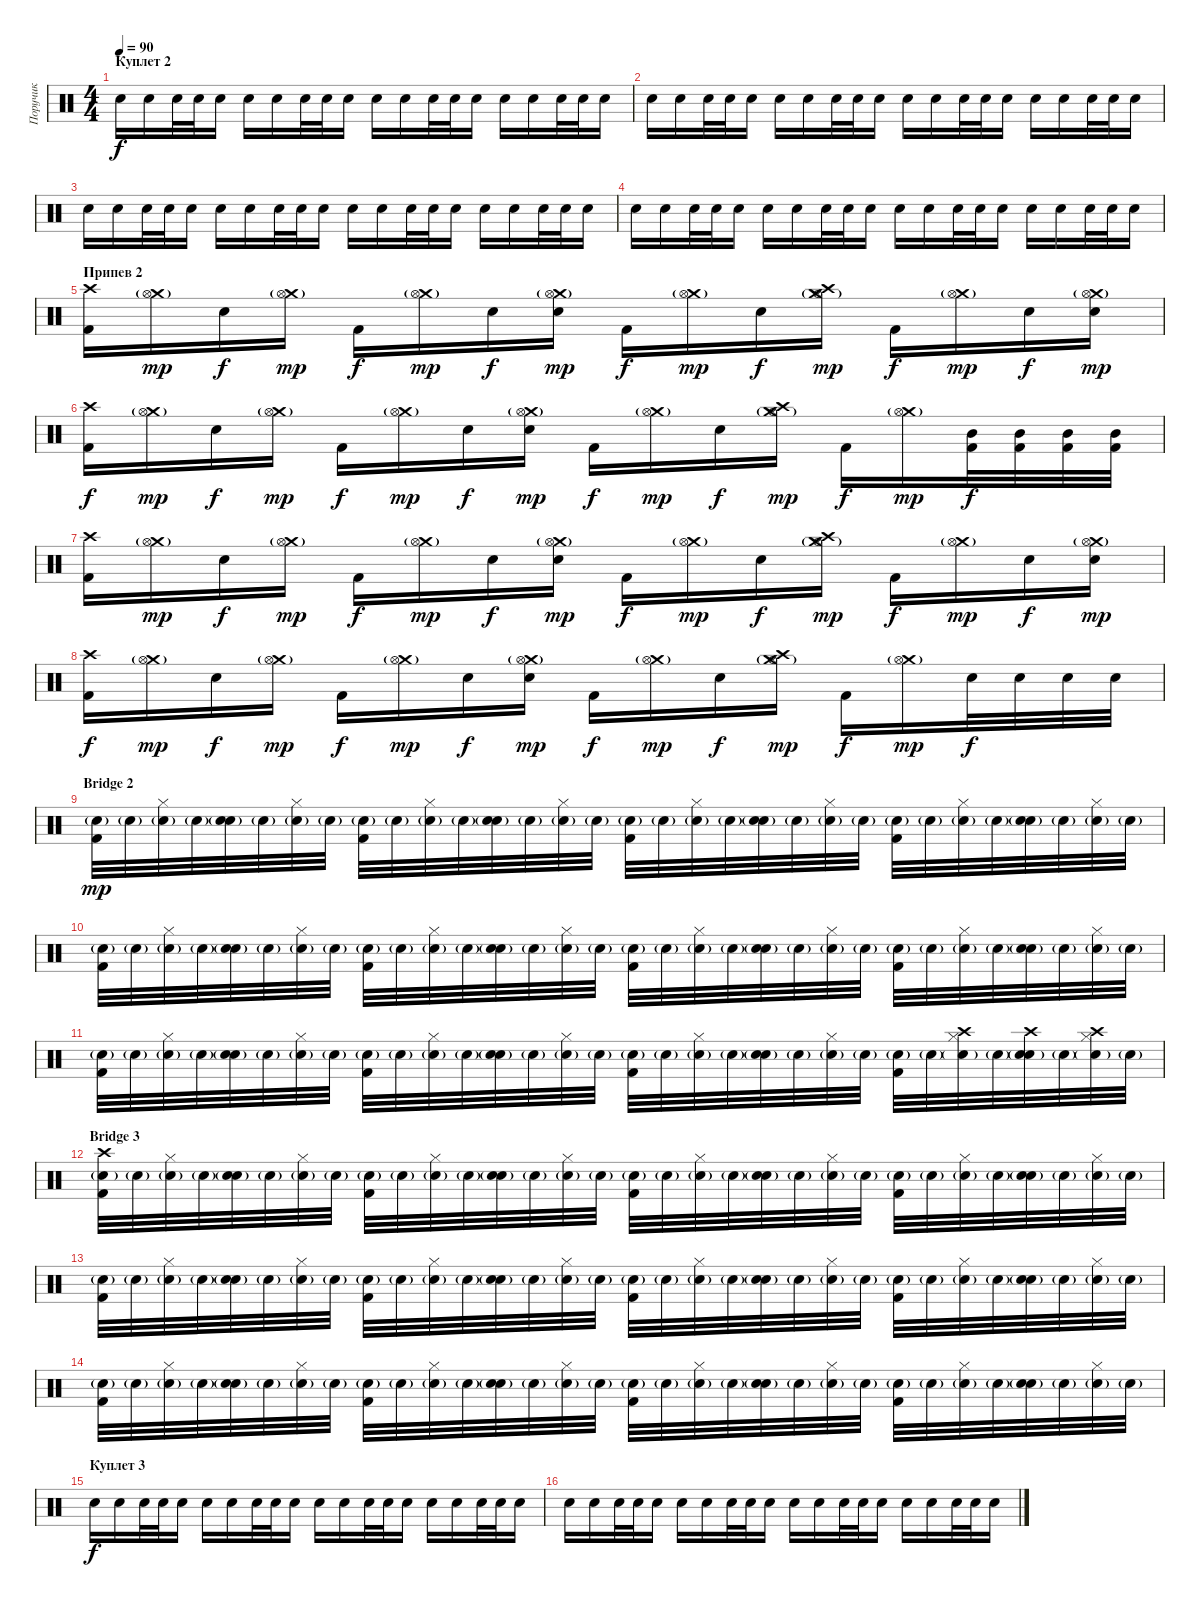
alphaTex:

\track ("Поручик" "Поручик") {instrument percussion}
\staff {score}
\articulation defaults
\ts (4 4)
\section ("" "Куплет 2")
\tempo 90
\clef neutral
\ks c "Snare (hit) 2".16{dy f} "Snare (hit) 2".16 "Snare (hit) 2".32 "Snare (hit) 2".32 "Snare (hit) 2".16 "Snare (hit) 2".16 "Snare (hit) 2".16 "Snare (hit) 2".32 "Snare (hit) 2".32 "Snare (hit) 2".16 "Snare (hit) 2".16 "Snare (hit) 2".16 "Snare (hit) 2".32 "Snare (hit) 2".32 "Snare (hit) 2".16 "Snare (hit) 2".16 "Snare (hit) 2".16 "Snare (hit) 2".32 "Snare (hit) 2".32 "Snare (hit) 2".16
|
"Snare (hit) 2".16 "Snare (hit) 2".16 "Snare (hit) 2".32 "Snare (hit) 2".32 "Snare (hit) 2".16 "Snare (hit) 2".16 "Snare (hit) 2".16 "Snare (hit) 2".32 "Snare (hit) 2".32 "Snare (hit) 2".16 "Snare (hit) 2".16 "Snare (hit) 2".16 "Snare (hit) 2".32 "Snare (hit) 2".32 "Snare (hit) 2".16 "Snare (hit) 2".16 "Snare (hit) 2".16 "Snare (hit) 2".32 "Snare (hit) 2".32 "Snare (hit) 2".16 |
"Snare (hit) 2".16 "Snare (hit) 2".16 "Snare (hit) 2".32 "Snare (hit) 2".32 "Snare (hit) 2".16 "Snare (hit) 2".16 "Snare (hit) 2".16 "Snare (hit) 2".32 "Snare (hit) 2".32 "Snare (hit) 2".16 "Snare (hit) 2".16 "Snare (hit) 2".16 "Snare (hit) 2".32 "Snare (hit) 2".32 "Snare (hit) 2".16 "Snare (hit) 2".16 "Snare (hit) 2".16 "Snare (hit) 2".32 "Snare (hit) 2".32 "Snare (hit) 2".16 |
"Snare (hit) 2".16 "Snare (hit) 2".16 "Snare (hit) 2".32 "Snare (hit) 2".32 "Snare (hit) 2".16 "Snare (hit) 2".16 "Snare (hit) 2".16 "Snare (hit) 2".32 "Snare (hit) 2".32 "Snare (hit) 2".16 "Snare (hit) 2".16 "Snare (hit) 2".16 "Snare (hit) 2".32 "Snare (hit) 2".32 "Snare (hit) 2".16 "Snare (hit) 2".16 "Snare (hit) 2".16 "Snare (hit) 2".32 "Snare (hit) 2".32 "Snare (hit) 2".16 |
\section ("" "Припев 2")
("Crash high (hit)" "Kick (hit) 2").16 ("Crash medium (hit)"{g} "Hi-Hat (open)"{g}).16{dy mp} "Snare (hit) 2".16{dy f} ("Crash medium (hit)"{g} "Hi-Hat (open)"{g}).16{dy mp} "Kick (hit) 2".16{dy f} ("Crash medium (hit)"{g} "Hi-Hat (open)"{g}).16{dy mp} "Snare (hit) 2".16{dy f} ("Snare (hit) 2" "Crash medium (hit)"{g} "Hi-Hat (open)"{g}).16{dy mp} "Kick (hit) 2".16{dy f} ("Crash medium (hit)"{g} "Hi-Hat (open)"{g}).16{dy mp} "Snare (hit) 2".16{dy f} ("Crash high (hit)" "Crash medium (hit)"{g} "Hi-Hat (open)"{g}).16{dy mp} "Kick (hit) 2".16{dy f} ("Crash medium (hit)"{g} "Hi-Hat (open)"{g}).16{dy mp} "Snare (hit) 2".16{dy f} ("Snare (hit) 2" "Crash medium (hit)"{g} "Hi-Hat (open)"{g}).16{dy mp} |
("Crash high (hit)" "Kick (hit) 2").16{dy f} ("Crash medium (hit)"{g} "Hi-Hat (open)"{g}).16{dy mp} "Snare (hit) 2".16{dy f} ("Crash medium (hit)"{g} "Hi-Hat (open)"{g}).16{dy mp} "Kick (hit) 2".16{dy f} ("Crash medium (hit)"{g} "Hi-Hat (open)"{g}).16{dy mp} "Snare (hit) 2".16{dy f} ("Snare (hit) 2" "Crash medium (hit)"{g} "Hi-Hat (open)"{g}).16{dy mp} "Kick (hit) 2".16{dy f} ("Crash medium (hit)"{g} "Hi-Hat (open)"{g}).16{dy mp} "Snare (hit) 2".16{dy f} ("Crash high (hit)" "Crash medium (hit)"{g} "Hi-Hat (open)"{g}).16{dy mp} "Kick (hit) 2".16{dy f} ("Crash medium (hit)"{g} "Hi-Hat (open)"{g}).16{dy mp} ("Kick (hit) 2" "Mid Tom (hit)").32{dy f} ("Kick (hit) 2" "Mid Tom (hit)").32 ("Kick (hit) 2" "Mid Tom (hit)").32 ("Kick (hit) 2" "Mid Tom (hit)").32 |
("Crash high (hit)" "Kick (hit) 2").16 ("Crash medium (hit)"{g} "Hi-Hat (open)"{g}).16{dy mp} "Snare (hit) 2".16{dy f} ("Crash medium (hit)"{g} "Hi-Hat (open)"{g}).16{dy mp} "Kick (hit) 2".16{dy f} ("Crash medium (hit)"{g} "Hi-Hat (open)"{g}).16{dy mp} "Snare (hit) 2".16{dy f} ("Snare (hit) 2" "Crash medium (hit)"{g} "Hi-Hat (open)"{g}).16{dy mp} "Kick (hit) 2".16{dy f} ("Crash medium (hit)"{g} "Hi-Hat (open)"{g}).16{dy mp} "Snare (hit) 2".16{dy f} ("Crash high (hit)" "Crash medium (hit)"{g} "Hi-Hat (open)"{g}).16{dy mp} "Kick (hit) 2".16{dy f} ("Crash medium (hit)"{g} "Hi-Hat (open)"{g}).16{dy mp} "Snare (hit) 2".16{dy f} ("Snare (hit) 2" "Crash medium (hit)"{g} "Hi-Hat (open)"{g}).16{dy mp} |
("Crash high (hit)" "Kick (hit) 2").16{dy f} ("Crash medium (hit)"{g} "Hi-Hat (open)"{g}).16{dy mp} "Snare (hit) 2".16{dy f} ("Crash medium (hit)"{g} "Hi-Hat (open)"{g}).16{dy mp} "Kick (hit) 2".16{dy f} ("Crash medium (hit)"{g} "Hi-Hat (open)"{g}).16{dy mp} "Snare (hit) 2".16{dy f} ("Snare (hit) 2" "Crash medium (hit)"{g} "Hi-Hat (open)"{g}).16{dy mp} "Kick (hit) 2".16{dy f} ("Crash medium (hit)"{g} "Hi-Hat (open)"{g}).16{dy mp} "Snare (hit) 2".16{dy f} ("Crash high (hit)" "Crash medium (hit)"{g} "Hi-Hat (open)"{g}).16{dy mp} "Kick (hit) 2".16{dy f} ("Crash medium (hit)"{g} "Hi-Hat (open)"{g}).16{dy mp} "Snare (hit) 2".32{dy f} "Snare (hit) 2".32 "Snare (hit) 2".32 "Snare (hit) 2".32 |
\section ("" "Bridge 2")
("Snare (hit) 2"{g} "Kick (hit) 2").32{dy mp} "Snare (hit) 2"{g}.32 ("Snare (hit) 2"{g} "Hi-Hat (closed)").32 "Snare (hit) 2"{g}.32 ("Snare (hit) 2"{g} "Snare (hit) 2").32 "Snare (hit) 2"{g}.32 ("Snare (hit) 2"{g} "Hi-Hat (closed)").32 "Snare (hit) 2"{g}.32 ("Snare (hit) 2"{g} "Kick (hit) 2").32 "Snare (hit) 2"{g}.32 ("Snare (hit) 2"{g} "Hi-Hat (closed)").32 "Snare (hit) 2"{g}.32 ("Snare (hit) 2"{g} "Snare (hit) 2").32 "Snare (hit) 2"{g}.32 ("Snare (hit) 2"{g} "Hi-Hat (closed)").32 "Snare (hit) 2"{g}.32 ("Snare (hit) 2"{g} "Kick (hit) 2").32 "Snare (hit) 2"{g}.32 ("Snare (hit) 2"{g} "Hi-Hat (closed)").32 "Snare (hit) 2"{g}.32 ("Snare (hit) 2"{g} "Snare (hit) 2").32 "Snare (hit) 2"{g}.32 ("Snare (hit) 2"{g} "Hi-Hat (closed)").32 "Snare (hit) 2"{g}.32 ("Snare (hit) 2"{g} "Kick (hit) 2").32 "Snare (hit) 2"{g}.32 ("Snare (hit) 2"{g} "Hi-Hat (closed)").32 "Snare (hit) 2"{g}.32 ("Snare (hit) 2"{g} "Snare (hit) 2").32 "Snare (hit) 2"{g}.32 ("Snare (hit) 2"{g} "Hi-Hat (closed)").32 "Snare (hit) 2"{g}.32 |
("Snare (hit) 2"{g} "Kick (hit) 2").32 "Snare (hit) 2"{g}.32 ("Snare (hit) 2"{g} "Hi-Hat (closed)").32 "Snare (hit) 2"{g}.32 ("Snare (hit) 2"{g} "Snare (hit) 2").32 "Snare (hit) 2"{g}.32 ("Snare (hit) 2"{g} "Hi-Hat (closed)").32 "Snare (hit) 2"{g}.32 ("Snare (hit) 2"{g} "Kick (hit) 2").32 "Snare (hit) 2"{g}.32 ("Snare (hit) 2"{g} "Hi-Hat (closed)").32 "Snare (hit) 2"{g}.32 ("Snare (hit) 2"{g} "Snare (hit) 2").32 "Snare (hit) 2"{g}.32 ("Snare (hit) 2"{g} "Hi-Hat (closed)").32 "Snare (hit) 2"{g}.32 ("Snare (hit) 2"{g} "Kick (hit) 2").32 "Snare (hit) 2"{g}.32 ("Snare (hit) 2"{g} "Hi-Hat (closed)").32 "Snare (hit) 2"{g}.32 ("Snare (hit) 2"{g} "Snare (hit) 2").32 "Snare (hit) 2"{g}.32 ("Snare (hit) 2"{g} "Hi-Hat (closed)").32 "Snare (hit) 2"{g}.32 ("Snare (hit) 2"{g} "Kick (hit) 2").32 "Snare (hit) 2"{g}.32 ("Snare (hit) 2"{g} "Hi-Hat (closed)").32 "Snare (hit) 2"{g}.32 ("Snare (hit) 2"{g} "Snare (hit) 2").32 "Snare (hit) 2"{g}.32 ("Snare (hit) 2"{g} "Hi-Hat (closed)").32 "Snare (hit) 2"{g}.32 |
("Snare (hit) 2"{g} "Kick (hit) 2").32 "Snare (hit) 2"{g}.32 ("Snare (hit) 2"{g} "Hi-Hat (closed)").32 "Snare (hit) 2"{g}.32 ("Snare (hit) 2"{g} "Snare (hit) 2").32 "Snare (hit) 2"{g}.32 ("Snare (hit) 2"{g} "Hi-Hat (closed)").32 "Snare (hit) 2"{g}.32 ("Snare (hit) 2"{g} "Kick (hit) 2").32 "Snare (hit) 2"{g}.32 ("Snare (hit) 2"{g} "Hi-Hat (closed)").32 "Snare (hit) 2"{g}.32 ("Snare (hit) 2"{g} "Snare (hit) 2").32 "Snare (hit) 2"{g}.32 ("Snare (hit) 2"{g} "Hi-Hat (closed)").32 "Snare (hit) 2"{g}.32 ("Snare (hit) 2"{g} "Kick (hit) 2").32 "Snare (hit) 2"{g}.32 ("Snare (hit) 2"{g} "Hi-Hat (closed)").32 "Snare (hit) 2"{g}.32 ("Snare (hit) 2"{g} "Snare (hit) 2").32 "Snare (hit) 2"{g}.32 ("Snare (hit) 2"{g} "Hi-Hat (closed)").32 "Snare (hit) 2"{g}.32 ("Snare (hit) 2"{g} "Kick (hit) 2").32 "Snare (hit) 2"{g}.32 ("Snare (hit) 2"{g} "Crash high (hit)" "Hi-Hat (closed)").32 "Snare (hit) 2"{g}.32 ("Snare (hit) 2"{g} "Crash high (hit)" "Snare (hit) 2").32 "Snare (hit) 2"{g}.32 ("Snare (hit) 2"{g} "Crash high (hit)" "Hi-Hat (closed)").32 "Snare (hit) 2"{g}.32 |
\section ("" "Bridge 3")
("Snare (hit) 2"{g} "Crash high (hit)" "Kick (hit) 2").32 "Snare (hit) 2"{g}.32 ("Snare (hit) 2"{g} "Hi-Hat (closed)").32 "Snare (hit) 2"{g}.32 ("Snare (hit) 2"{g} "Snare (hit) 2").32 "Snare (hit) 2"{g}.32 ("Snare (hit) 2"{g} "Hi-Hat (closed)").32 "Snare (hit) 2"{g}.32 ("Snare (hit) 2"{g} "Kick (hit) 2").32 "Snare (hit) 2"{g}.32 ("Snare (hit) 2"{g} "Hi-Hat (closed)").32 "Snare (hit) 2"{g}.32 ("Snare (hit) 2"{g} "Snare (hit) 2").32 "Snare (hit) 2"{g}.32 ("Snare (hit) 2"{g} "Hi-Hat (closed)").32 "Snare (hit) 2"{g}.32 ("Snare (hit) 2"{g} "Kick (hit) 2").32 "Snare (hit) 2"{g}.32 ("Snare (hit) 2"{g} "Hi-Hat (closed)").32 "Snare (hit) 2"{g}.32 ("Snare (hit) 2"{g} "Snare (hit) 2").32 "Snare (hit) 2"{g}.32 ("Snare (hit) 2"{g} "Hi-Hat (closed)").32 "Snare (hit) 2"{g}.32 ("Snare (hit) 2"{g} "Kick (hit) 2").32 "Snare (hit) 2"{g}.32 ("Snare (hit) 2"{g} "Hi-Hat (closed)").32 "Snare (hit) 2"{g}.32 ("Snare (hit) 2"{g} "Snare (hit) 2").32 "Snare (hit) 2"{g}.32 ("Snare (hit) 2"{g} "Hi-Hat (closed)").32 "Snare (hit) 2"{g}.32 |
("Snare (hit) 2"{g} "Kick (hit) 2").32 "Snare (hit) 2"{g}.32 ("Snare (hit) 2"{g} "Hi-Hat (closed)").32 "Snare (hit) 2"{g}.32 ("Snare (hit) 2"{g} "Snare (hit) 2").32 "Snare (hit) 2"{g}.32 ("Snare (hit) 2"{g} "Hi-Hat (closed)").32 "Snare (hit) 2"{g}.32 ("Snare (hit) 2"{g} "Kick (hit) 2").32 "Snare (hit) 2"{g}.32 ("Snare (hit) 2"{g} "Hi-Hat (closed)").32 "Snare (hit) 2"{g}.32 ("Snare (hit) 2"{g} "Snare (hit) 2").32 "Snare (hit) 2"{g}.32 ("Snare (hit) 2"{g} "Hi-Hat (closed)").32 "Snare (hit) 2"{g}.32 ("Snare (hit) 2"{g} "Kick (hit) 2").32 "Snare (hit) 2"{g}.32 ("Snare (hit) 2"{g} "Hi-Hat (closed)").32 "Snare (hit) 2"{g}.32 ("Snare (hit) 2"{g} "Snare (hit) 2").32 "Snare (hit) 2"{g}.32 ("Snare (hit) 2"{g} "Hi-Hat (closed)").32 "Snare (hit) 2"{g}.32 ("Snare (hit) 2"{g} "Kick (hit) 2").32 "Snare (hit) 2"{g}.32 ("Snare (hit) 2"{g} "Hi-Hat (closed)").32 "Snare (hit) 2"{g}.32 ("Snare (hit) 2"{g} "Snare (hit) 2").32 "Snare (hit) 2"{g}.32 ("Snare (hit) 2"{g} "Hi-Hat (closed)").32 "Snare (hit) 2"{g}.32 |
("Snare (hit) 2"{g} "Kick (hit) 2").32 "Snare (hit) 2"{g}.32 ("Snare (hit) 2"{g} "Hi-Hat (closed)").32 "Snare (hit) 2"{g}.32 ("Snare (hit) 2"{g} "Snare (hit) 2").32 "Snare (hit) 2"{g}.32 ("Snare (hit) 2"{g} "Hi-Hat (closed)").32 "Snare (hit) 2"{g}.32 ("Snare (hit) 2"{g} "Kick (hit) 2").32 "Snare (hit) 2"{g}.32 ("Snare (hit) 2"{g} "Hi-Hat (closed)").32 "Snare (hit) 2"{g}.32 ("Snare (hit) 2"{g} "Snare (hit) 2").32 "Snare (hit) 2"{g}.32 ("Snare (hit) 2"{g} "Hi-Hat (closed)").32 "Snare (hit) 2"{g}.32 ("Snare (hit) 2"{g} "Kick (hit) 2").32 "Snare (hit) 2"{g}.32 ("Snare (hit) 2"{g} "Hi-Hat (closed)").32 "Snare (hit) 2"{g}.32 ("Snare (hit) 2"{g} "Snare (hit) 2").32 "Snare (hit) 2"{g}.32 ("Snare (hit) 2"{g} "Hi-Hat (closed)").32 "Snare (hit) 2"{g}.32 ("Snare (hit) 2"{g} "Kick (hit) 2").32 "Snare (hit) 2"{g}.32 ("Snare (hit) 2"{g} "Hi-Hat (closed)").32 "Snare (hit) 2"{g}.32 ("Snare (hit) 2"{g} "Snare (hit) 2").32 "Snare (hit) 2"{g}.32 ("Snare (hit) 2"{g} "Hi-Hat (closed)").32 "Snare (hit) 2"{g}.32 |
\section ("" "Куплет 3")
"Snare (hit) 2".16{dy f} "Snare (hit) 2".16 "Snare (hit) 2".32 "Snare (hit) 2".32 "Snare (hit) 2".16 "Snare (hit) 2".16 "Snare (hit) 2".16 "Snare (hit) 2".32 "Snare (hit) 2".32 "Snare (hit) 2".16 "Snare (hit) 2".16 "Snare (hit) 2".16 "Snare (hit) 2".32 "Snare (hit) 2".32 "Snare (hit) 2".16 "Snare (hit) 2".16 "Snare (hit) 2".16 "Snare (hit) 2".32 "Snare (hit) 2".32 "Snare (hit) 2".16 |
"Snare (hit) 2".16 "Snare (hit) 2".16 "Snare (hit) 2".32 "Snare (hit) 2".32 "Snare (hit) 2".16 "Snare (hit) 2".16 "Snare (hit) 2".16 "Snare (hit) 2".32 "Snare (hit) 2".32 "Snare (hit) 2".16 "Snare (hit) 2".16 "Snare (hit) 2".16 "Snare (hit) 2".32 "Snare (hit) 2".32 "Snare (hit) 2".16 "Snare (hit) 2".16 "Snare (hit) 2".16 "Snare (hit) 2".32 "Snare (hit) 2".32 "Snare (hit) 2".16
